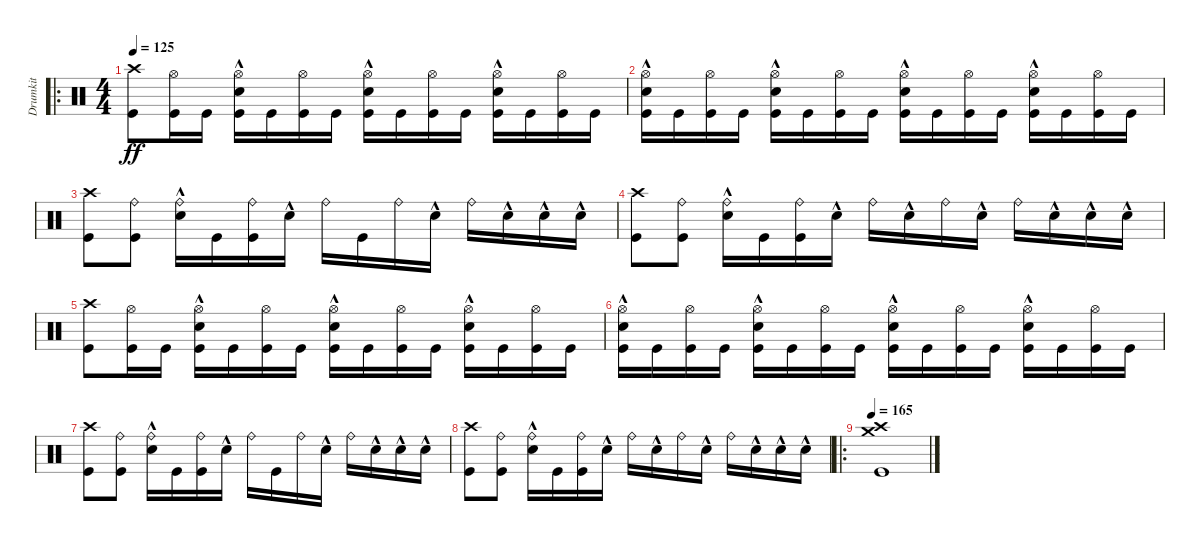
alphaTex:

\track ("Drumkit" "Drumkit") {instrument percussion}
\staff {score}
\articulation defaults
\ro
\ts (4 4)
\tempo 125
\clef neutral
\ks c
("Kick (hit)" "Crash high (hit)").8{dy ff} ("Kick (hit)" "Hi-Hat (open)").16 "Kick (hit)".16 ("Kick (hit)" "Snare (hit) 2"{hac} "Hi-Hat (open)").16 "Kick (hit)".16 ("Kick (hit)" "Hi-Hat (open)").16 "Kick (hit)".16 ("Kick (hit)" "Snare (hit) 2"{hac} "Hi-Hat (open)").16 "Kick (hit)".16 ("Kick (hit)" "Hi-Hat (open)").16 "Kick (hit)".16 ("Kick (hit)" "Snare (hit) 2"{hac} "Hi-Hat (open)").16 "Kick (hit)".16 ("Kick (hit)" "Hi-Hat (open)").16 "Kick (hit)".16 |
("Kick (hit)" "Snare (hit) 2"{hac} "Hi-Hat (open)").16 "Kick (hit)".16 ("Kick (hit)" "Hi-Hat (open)").16 "Kick (hit)".16 ("Kick (hit)" "Snare (hit) 2"{hac} "Hi-Hat (open)").16 "Kick (hit)".16 ("Kick (hit)" "Hi-Hat (open)").16 "Kick (hit)".16 ("Kick (hit)" "Snare (hit) 2"{hac} "Hi-Hat (open)").16 "Kick (hit)".16 ("Kick (hit)" "Hi-Hat (open)").16 "Kick (hit)".16 ("Kick (hit)" "Snare (hit) 2"{hac} "Hi-Hat (open)").16 "Kick (hit)".16 ("Kick (hit)" "Hi-Hat (open)").16 "Kick (hit)".16 |
("Kick (hit)" "Crash high (hit)").8 ("Kick (hit)" "Ride (bell)").8 ("Snare (hit) 2"{hac} "Ride (bell)").16 "Kick (hit)".16 ("Kick (hit)" "Ride (bell)").16 "Snare (hit) 2"{hac}.16 "Ride (bell)".16 "Kick (hit)".16 "Ride (bell)".16 "Snare (hit) 2"{hac}.16 "Ride (bell)".16 "Snare (hit) 2"{hac}.16 "Snare (hit) 2"{hac}.16 "Snare (hit) 2"{hac}.16 |
("Kick (hit)" "Crash high (hit)").8 ("Kick (hit)" "Ride (bell)").8 ("Snare (hit) 2"{hac} "Ride (bell)").16 "Kick (hit)".16 ("Kick (hit)" "Ride (bell)").16 "Snare (hit) 2"{hac}.16 "Ride (bell)".16 "Snare (hit) 2"{hac}.16 "Ride (bell)".16 "Snare (hit) 2"{hac}.16 "Ride (bell)".16 "Snare (hit) 2"{hac}.16 "Snare (hit) 2"{hac}.16 "Snare (hit) 2"{hac}.16 |
("Kick (hit)" "Crash high (hit)").8 ("Kick (hit)" "Hi-Hat (open)").16 "Kick (hit)".16 ("Kick (hit)" "Snare (hit) 2"{hac} "Hi-Hat (open)").16 "Kick (hit)".16 ("Kick (hit)" "Hi-Hat (open)").16 "Kick (hit)".16 ("Kick (hit)" "Snare (hit) 2"{hac} "Hi-Hat (open)").16 "Kick (hit)".16 ("Kick (hit)" "Hi-Hat (open)").16 "Kick (hit)".16 ("Kick (hit)" "Snare (hit) 2"{hac} "Hi-Hat (open)").16 "Kick (hit)".16 ("Kick (hit)" "Hi-Hat (open)").16 "Kick (hit)".16 |
("Kick (hit)" "Snare (hit) 2"{hac} "Hi-Hat (open)").16 "Kick (hit)".16 ("Kick (hit)" "Hi-Hat (open)").16 "Kick (hit)".16 ("Kick (hit)" "Snare (hit) 2"{hac} "Hi-Hat (open)").16 "Kick (hit)".16 ("Kick (hit)" "Hi-Hat (open)").16 "Kick (hit)".16 ("Kick (hit)" "Snare (hit) 2"{hac} "Hi-Hat (open)").16 "Kick (hit)".16 ("Kick (hit)" "Hi-Hat (open)").16 "Kick (hit)".16 ("Kick (hit)" "Snare (hit) 2"{hac} "Hi-Hat (open)").16 "Kick (hit)".16 ("Kick (hit)" "Hi-Hat (open)").16 "Kick (hit)".16 |
("Kick (hit)" "Crash high (hit)").8 ("Kick (hit)" "Ride (bell)").8 ("Snare (hit) 2"{hac} "Ride (bell)").16 "Kick (hit)".16 ("Kick (hit)" "Ride (bell)").16 "Snare (hit) 2"{hac}.16 "Ride (bell)".16 "Kick (hit)".16 "Ride (bell)".16 "Snare (hit) 2"{hac}.16 "Ride (bell)".16 "Snare (hit) 2"{hac}.16 "Snare (hit) 2"{hac}.16 "Snare (hit) 2"{hac}.16 |
("Kick (hit)" "Crash high (hit)").8 ("Kick (hit)" "Ride (bell)").8 ("Snare (hit) 2"{hac} "Ride (bell)").16 "Kick (hit)".16 ("Kick (hit)" "Ride (bell)").16 "Snare (hit) 2"{hac}.16 "Ride (bell)".16 "Snare (hit) 2"{hac}.16 "Ride (bell)".16 "Snare (hit) 2"{hac}.16 "Ride (bell)".16 "Snare (hit) 2"{hac}.16 "Snare (hit) 2"{hac}.16 "Snare (hit) 2"{hac}.16 |
\ro
\tempo 165
("Kick (hit)" "Crash high (hit)" "Crash medium (hit)").1
